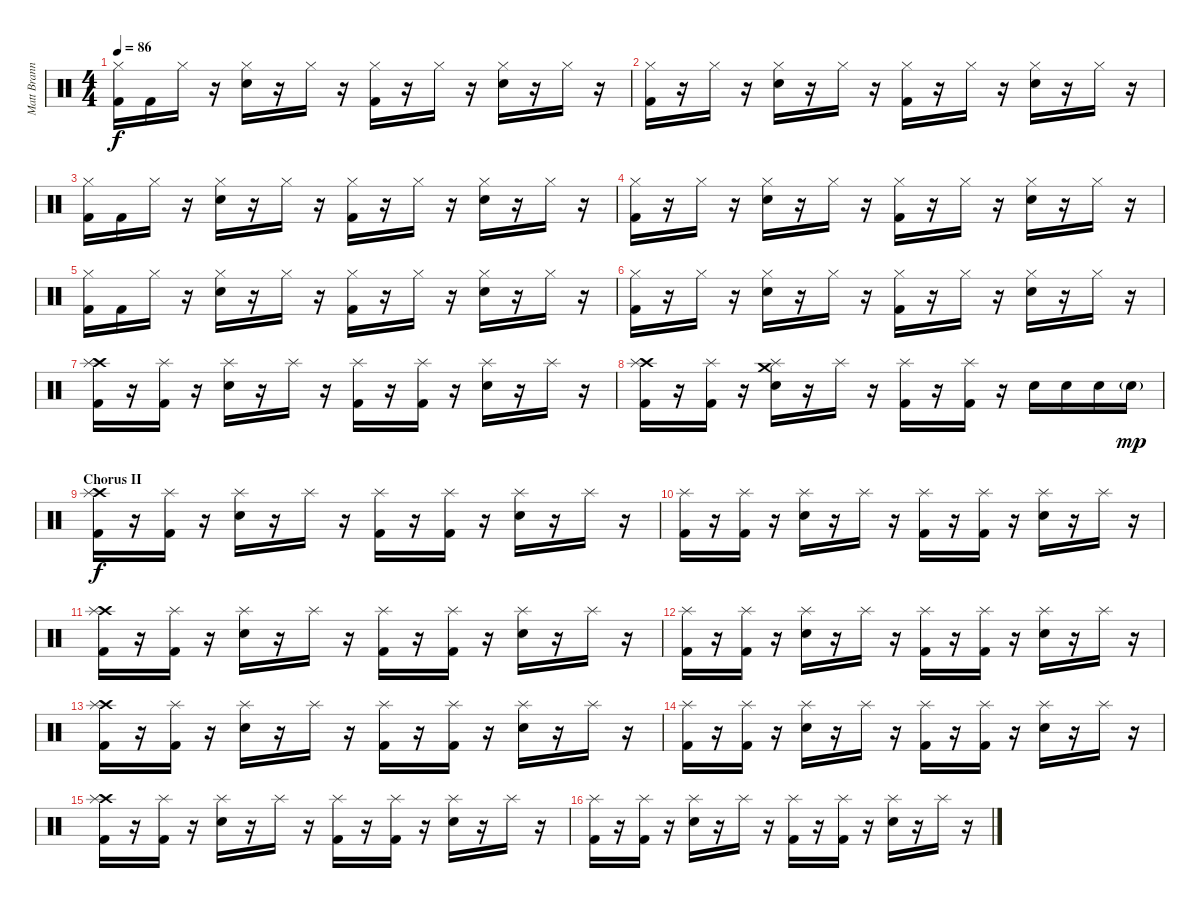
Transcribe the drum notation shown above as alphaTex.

\track ("Matt Brann - Drums" "Matt Brann") {instrument percussion}
\staff {score}
\articulation defaults
\ts (4 4)
\tempo 86
\clef neutral
\ks c
("Hi-Hat (closed)" "Kick (hit) 2").16{dy f} "Kick (hit) 2".16 "Hi-Hat (closed)".16 r.16 ("Hi-Hat (closed)" "Snare (hit) 2").16 r.16 "Hi-Hat (closed)".16 r.16 ("Hi-Hat (closed)" "Kick (hit) 2").16 r.16 "Hi-Hat (closed)".16 r.16 ("Hi-Hat (closed)" "Snare (hit) 2").16 r.16 "Hi-Hat (closed)".16 r.16 |
("Hi-Hat (closed)" "Kick (hit) 2").16 r.16 "Hi-Hat (closed)".16 r.16 ("Hi-Hat (closed)" "Snare (hit) 2").16 r.16 "Hi-Hat (closed)".16 r.16 ("Hi-Hat (closed)" "Kick (hit) 2").16 r.16 "Hi-Hat (closed)".16 r.16 ("Hi-Hat (closed)" "Snare (hit) 2").16 r.16 "Hi-Hat (closed)".16 r.16 |
("Hi-Hat (closed)" "Kick (hit) 2").16 "Kick (hit) 2".16 "Hi-Hat (closed)".16 r.16 ("Hi-Hat (closed)" "Snare (hit) 2").16 r.16 "Hi-Hat (closed)".16 r.16 ("Hi-Hat (closed)" "Kick (hit) 2").16 r.16 "Hi-Hat (closed)".16 r.16 ("Hi-Hat (closed)" "Snare (hit) 2").16 r.16 "Hi-Hat (closed)".16 r.16 |
("Hi-Hat (closed)" "Kick (hit) 2").16 r.16 "Hi-Hat (closed)".16 r.16 ("Hi-Hat (closed)" "Snare (hit) 2").16 r.16 "Hi-Hat (closed)".16 r.16 ("Hi-Hat (closed)" "Kick (hit) 2").16 r.16 "Hi-Hat (closed)".16 r.16 ("Hi-Hat (closed)" "Snare (hit) 2").16 r.16 "Hi-Hat (closed)".16 r.16 |
("Hi-Hat (closed)" "Kick (hit) 2").16 "Kick (hit) 2".16 "Hi-Hat (closed)".16 r.16 ("Hi-Hat (closed)" "Snare (hit) 2").16 r.16 "Hi-Hat (closed)".16 r.16 ("Hi-Hat (closed)" "Kick (hit) 2").16 r.16 "Hi-Hat (closed)".16 r.16 ("Hi-Hat (closed)" "Snare (hit) 2").16 r.16 "Hi-Hat (closed)".16 r.16 |
("Hi-Hat (closed)" "Kick (hit) 2").16 r.16 "Hi-Hat (closed)".16 r.16 ("Hi-Hat (closed)" "Snare (hit) 2").16 r.16 "Hi-Hat (closed)".16 r.16 ("Hi-Hat (closed)" "Kick (hit) 2").16 r.16 "Hi-Hat (closed)".16 r.16 ("Hi-Hat (closed)" "Snare (hit) 2").16 r.16 "Hi-Hat (closed)".16 r.16 |
("Crash high (hit)" "Splash (hit)" "Kick (hit) 2").16 r.16 ("Splash (hit)" "Kick (hit) 2").16 r.16 ("Splash (hit)" "Snare (hit) 2").16 r.16 "Splash (hit)".16 r.16 ("Splash (hit)" "Kick (hit) 2").16 r.16 ("Splash (hit)" "Kick (hit) 2").16 r.16 ("Splash (hit)" "Snare (hit) 2").16 r.16 "Splash (hit)".16 r.16 |
("Crash high (hit)" "Splash (hit)" "Kick (hit) 2").16 r.16 ("Splash (hit)" "Kick (hit) 2").16 r.16 ("Crash medium (hit)" "Splash (hit)" "Snare (hit) 2").16 r.16 "Splash (hit)".16 r.16 ("Splash (hit)" "Kick (hit) 2").16 r.16 ("Splash (hit)" "Kick (hit) 2").16 r.16 "Snare (hit) 2".16 "Snare (hit) 2".16 "Snare (hit) 2".16 "Snare (hit) 2"{g}.16{dy mp} |
\section ("" "Chorus II")
("Crash high (hit)" "Splash (hit)" "Kick (hit) 2").16{dy f} r.16 ("Splash (hit)" "Kick (hit) 2").16 r.16 ("Splash (hit)" "Snare (hit) 2").16 r.16 "Splash (hit)".16 r.16 ("Splash (hit)" "Kick (hit) 2").16 r.16 ("Splash (hit)" "Kick (hit) 2").16 r.16 ("Splash (hit)" "Snare (hit) 2").16 r.16 "Splash (hit)".16 r.16 |
("Splash (hit)" "Kick (hit) 2").16 r.16 ("Splash (hit)" "Kick (hit) 2").16 r.16 ("Splash (hit)" "Snare (hit) 2").16 r.16 "Splash (hit)".16 r.16 ("Splash (hit)" "Kick (hit) 2").16 r.16 ("Splash (hit)" "Kick (hit) 2").16 r.16 ("Splash (hit)" "Snare (hit) 2").16 r.16 "Splash (hit)".16 r.16 |
("Crash high (hit)" "Splash (hit)" "Kick (hit) 2").16 r.16 ("Splash (hit)" "Kick (hit) 2").16 r.16 ("Splash (hit)" "Snare (hit) 2").16 r.16 "Splash (hit)".16 r.16 ("Splash (hit)" "Kick (hit) 2").16 r.16 ("Splash (hit)" "Kick (hit) 2").16 r.16 ("Splash (hit)" "Snare (hit) 2").16 r.16 "Splash (hit)".16 r.16 |
("Splash (hit)" "Kick (hit) 2").16 r.16 ("Splash (hit)" "Kick (hit) 2").16 r.16 ("Splash (hit)" "Snare (hit) 2").16 r.16 "Splash (hit)".16 r.16 ("Splash (hit)" "Kick (hit) 2").16 r.16 ("Splash (hit)" "Kick (hit) 2").16 r.16 ("Splash (hit)" "Snare (hit) 2").16 r.16 "Splash (hit)".16 r.16 |
("Crash high (hit)" "Splash (hit)" "Kick (hit) 2").16 r.16 ("Splash (hit)" "Kick (hit) 2").16 r.16 ("Splash (hit)" "Snare (hit) 2").16 r.16 "Splash (hit)".16 r.16 ("Splash (hit)" "Kick (hit) 2").16 r.16 ("Splash (hit)" "Kick (hit) 2").16 r.16 ("Splash (hit)" "Snare (hit) 2").16 r.16 "Splash (hit)".16 r.16 |
("Splash (hit)" "Kick (hit) 2").16 r.16 ("Splash (hit)" "Kick (hit) 2").16 r.16 ("Splash (hit)" "Snare (hit) 2").16 r.16 "Splash (hit)".16 r.16 ("Splash (hit)" "Kick (hit) 2").16 r.16 ("Splash (hit)" "Kick (hit) 2").16 r.16 ("Splash (hit)" "Snare (hit) 2").16 r.16 "Splash (hit)".16 r.16 |
("Crash high (hit)" "Splash (hit)" "Kick (hit) 2").16 r.16 ("Splash (hit)" "Kick (hit) 2").16 r.16 ("Splash (hit)" "Snare (hit) 2").16 r.16 "Splash (hit)".16 r.16 ("Splash (hit)" "Kick (hit) 2").16 r.16 ("Splash (hit)" "Kick (hit) 2").16 r.16 ("Splash (hit)" "Snare (hit) 2").16 r.16 "Splash (hit)".16 r.16 |
("Splash (hit)" "Kick (hit) 2").16 r.16 ("Splash (hit)" "Kick (hit) 2").16 r.16 ("Splash (hit)" "Snare (hit) 2").16 r.16 "Splash (hit)".16 r.16 ("Splash (hit)" "Kick (hit) 2").16 r.16 ("Splash (hit)" "Kick (hit) 2").16 r.16 ("Splash (hit)" "Snare (hit) 2").16 r.16 "Splash (hit)".16 r.16
